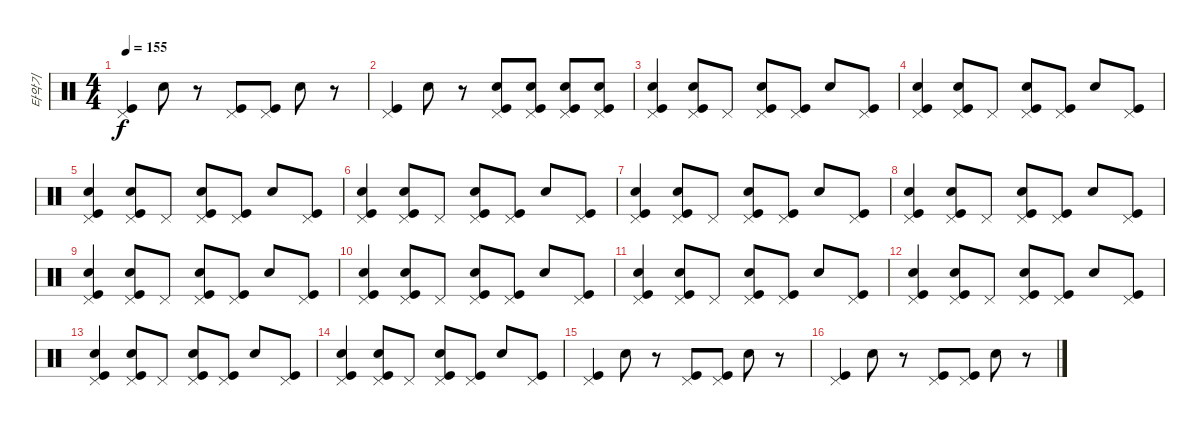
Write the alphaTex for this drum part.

\track ("타악기" "타악기") {instrument percussion}
\staff {score}
\articulation defaults
\ts (4 4)
\tempo 155
\clef neutral
\ks c
("Pedal Hi-Hat (hit)" "Kick (hit)").4{dy f} "Electric Snare (hit)".8 r.8 ("Pedal Hi-Hat (hit)" "Kick (hit)").8 ("Pedal Hi-Hat (hit)" "Kick (hit)").8 "Electric Snare (hit)".8 r.8 |
("Pedal Hi-Hat (hit)" "Kick (hit)").4 "Electric Snare (hit)".8 r.8 ("Pedal Hi-Hat (hit)" "Electric Snare (hit)" "Kick (hit)").8 ("Pedal Hi-Hat (hit)" "Electric Snare (hit)" "Kick (hit)").8 ("Pedal Hi-Hat (hit)" "Electric Snare (hit)" "Kick (hit)").8 ("Pedal Hi-Hat (hit)" "Electric Snare (hit)" "Kick (hit)").8 |
("Pedal Hi-Hat (hit)" "Snare (hit) 2" "Kick (hit)").4 ("Pedal Hi-Hat (hit)" "Electric Snare (hit)" "Kick (hit)").8 "Pedal Hi-Hat (hit)".8 ("Pedal Hi-Hat (hit)" "Snare (hit) 2" "Kick (hit)").8 ("Pedal Hi-Hat (hit)" "Kick (hit)").8 "Electric Snare (hit)".8 ("Pedal Hi-Hat (hit)" "Kick (hit)").8 |
("Pedal Hi-Hat (hit)" "Snare (hit) 2" "Kick (hit)").4 ("Pedal Hi-Hat (hit)" "Electric Snare (hit)" "Kick (hit)").8 "Pedal Hi-Hat (hit)".8 ("Pedal Hi-Hat (hit)" "Snare (hit) 2" "Kick (hit)").8 ("Pedal Hi-Hat (hit)" "Kick (hit)").8 "Electric Snare (hit)".8 ("Pedal Hi-Hat (hit)" "Kick (hit)").8 |
("Pedal Hi-Hat (hit)" "Snare (hit) 2" "Kick (hit)").4 ("Pedal Hi-Hat (hit)" "Electric Snare (hit)" "Kick (hit)").8 "Pedal Hi-Hat (hit)".8 ("Pedal Hi-Hat (hit)" "Snare (hit) 2" "Kick (hit)").8 ("Pedal Hi-Hat (hit)" "Kick (hit)").8 "Electric Snare (hit)".8 ("Pedal Hi-Hat (hit)" "Kick (hit)").8 |
("Pedal Hi-Hat (hit)" "Snare (hit) 2" "Kick (hit)").4 ("Pedal Hi-Hat (hit)" "Electric Snare (hit)" "Kick (hit)").8 "Pedal Hi-Hat (hit)".8 ("Pedal Hi-Hat (hit)" "Snare (hit) 2" "Kick (hit)").8 ("Pedal Hi-Hat (hit)" "Kick (hit)").8 "Electric Snare (hit)".8 ("Pedal Hi-Hat (hit)" "Kick (hit)").8 |
("Pedal Hi-Hat (hit)" "Snare (hit) 2" "Kick (hit)").4 ("Pedal Hi-Hat (hit)" "Electric Snare (hit)" "Kick (hit)").8 "Pedal Hi-Hat (hit)".8 ("Pedal Hi-Hat (hit)" "Snare (hit) 2" "Kick (hit)").8 ("Pedal Hi-Hat (hit)" "Kick (hit)").8 "Electric Snare (hit)".8 ("Pedal Hi-Hat (hit)" "Kick (hit)").8 |
("Pedal Hi-Hat (hit)" "Snare (hit) 2" "Kick (hit)").4 ("Pedal Hi-Hat (hit)" "Electric Snare (hit)" "Kick (hit)").8 "Pedal Hi-Hat (hit)".8 ("Pedal Hi-Hat (hit)" "Snare (hit) 2" "Kick (hit)").8 ("Pedal Hi-Hat (hit)" "Kick (hit)").8 "Electric Snare (hit)".8 ("Pedal Hi-Hat (hit)" "Kick (hit)").8 |
("Pedal Hi-Hat (hit)" "Snare (hit) 2" "Kick (hit)").4 ("Pedal Hi-Hat (hit)" "Electric Snare (hit)" "Kick (hit)").8 "Pedal Hi-Hat (hit)".8 ("Pedal Hi-Hat (hit)" "Snare (hit) 2" "Kick (hit)").8 ("Pedal Hi-Hat (hit)" "Kick (hit)").8 "Electric Snare (hit)".8 ("Pedal Hi-Hat (hit)" "Kick (hit)").8 |
("Pedal Hi-Hat (hit)" "Snare (hit) 2" "Kick (hit)").4 ("Pedal Hi-Hat (hit)" "Electric Snare (hit)" "Kick (hit)").8 "Pedal Hi-Hat (hit)".8 ("Pedal Hi-Hat (hit)" "Snare (hit) 2" "Kick (hit)").8 ("Pedal Hi-Hat (hit)" "Kick (hit)").8 "Electric Snare (hit)".8 ("Pedal Hi-Hat (hit)" "Kick (hit)").8 |
("Pedal Hi-Hat (hit)" "Snare (hit) 2" "Kick (hit)").4 ("Pedal Hi-Hat (hit)" "Electric Snare (hit)" "Kick (hit)").8 "Pedal Hi-Hat (hit)".8 ("Pedal Hi-Hat (hit)" "Snare (hit) 2" "Kick (hit)").8 ("Pedal Hi-Hat (hit)" "Kick (hit)").8 "Electric Snare (hit)".8 ("Pedal Hi-Hat (hit)" "Kick (hit)").8 |
("Pedal Hi-Hat (hit)" "Snare (hit) 2" "Kick (hit)").4 ("Pedal Hi-Hat (hit)" "Electric Snare (hit)" "Kick (hit)").8 "Pedal Hi-Hat (hit)".8 ("Pedal Hi-Hat (hit)" "Snare (hit) 2" "Kick (hit)").8 ("Pedal Hi-Hat (hit)" "Kick (hit)").8 "Electric Snare (hit)".8 ("Pedal Hi-Hat (hit)" "Kick (hit)").8 |
("Pedal Hi-Hat (hit)" "Snare (hit) 2" "Kick (hit)").4 ("Pedal Hi-Hat (hit)" "Electric Snare (hit)" "Kick (hit)").8 "Pedal Hi-Hat (hit)".8 ("Pedal Hi-Hat (hit)" "Snare (hit) 2" "Kick (hit)").8 ("Pedal Hi-Hat (hit)" "Kick (hit)").8 "Electric Snare (hit)".8 ("Pedal Hi-Hat (hit)" "Kick (hit)").8 |
("Pedal Hi-Hat (hit)" "Snare (hit) 2" "Kick (hit)").4 ("Pedal Hi-Hat (hit)" "Electric Snare (hit)" "Kick (hit)").8 "Pedal Hi-Hat (hit)".8 ("Pedal Hi-Hat (hit)" "Snare (hit) 2" "Kick (hit)").8 ("Pedal Hi-Hat (hit)" "Kick (hit)").8 "Electric Snare (hit)".8 ("Pedal Hi-Hat (hit)" "Kick (hit)").8 |
("Pedal Hi-Hat (hit)" "Kick (hit)").4 "Electric Snare (hit)".8 r.8 ("Pedal Hi-Hat (hit)" "Kick (hit)").8 ("Pedal Hi-Hat (hit)" "Kick (hit)").8 "Electric Snare (hit)".8 r.8 |
("Pedal Hi-Hat (hit)" "Kick (hit)").4 "Electric Snare (hit)".8 r.8 ("Pedal Hi-Hat (hit)" "Kick (hit)").8 ("Pedal Hi-Hat (hit)" "Kick (hit)").8 "Electric Snare (hit)".8 r.8
